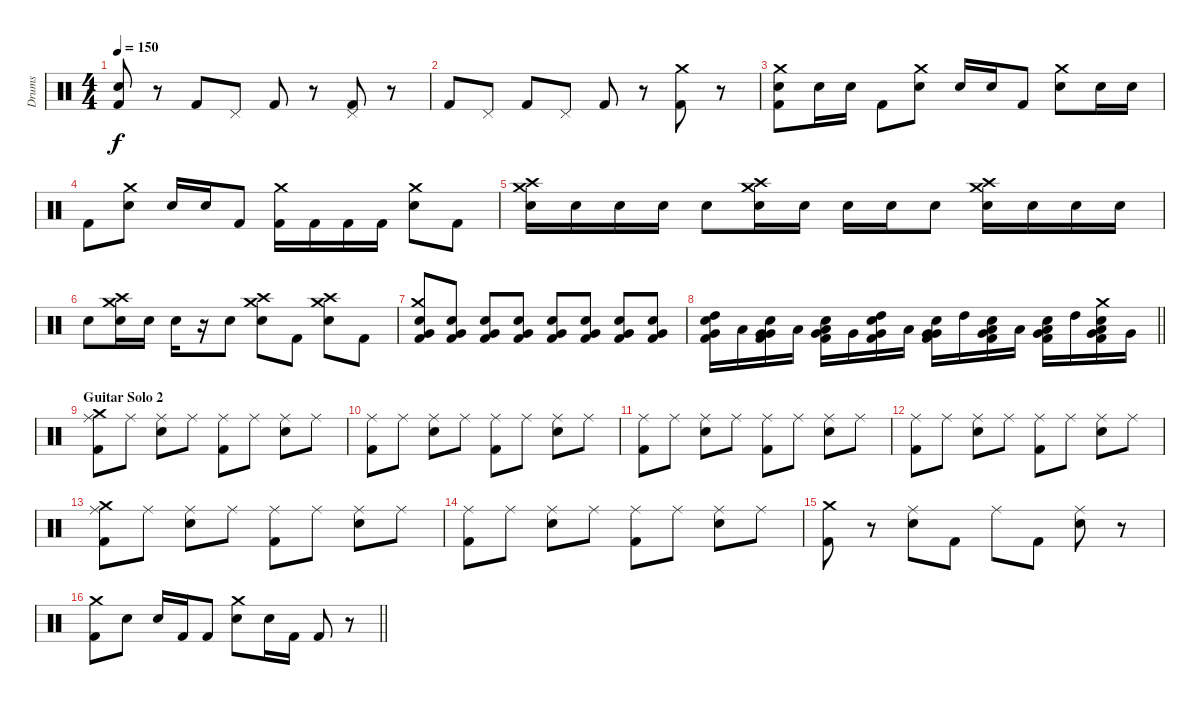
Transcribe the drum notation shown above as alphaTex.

\track ("Drums" "Drums") {instrument percussion}
\staff {score}
\articulation defaults
\ts (4 4)
\tempo 150
\clef neutral
\ks c
("Electric Snare (hit)" "Kick (hit) 2").8{dy f} r.8 "Kick (hit) 2".8 "Pedal Hi-Hat (hit)".8 "Kick (hit) 2".8 r.8 ("Pedal Hi-Hat (hit)" "Kick (hit) 2").8 r.8 |
"Kick (hit) 2".8 "Pedal Hi-Hat (hit)".8 "Kick (hit) 2".8 "Pedal Hi-Hat (hit)".8 "Kick (hit) 2".8 r.8 ("Crash medium (hit)" "Kick (hit) 2").8 r.8 |
("Crash medium (hit)" "Electric Snare (hit)" "Kick (hit) 2").8 "Electric Snare (hit)".16 "Electric Snare (hit)".16 "Kick (hit) 2".8 ("Crash medium (hit)" "Electric Snare (hit)").8 "Electric Snare (hit)".16 "Electric Snare (hit)".16 "Kick (hit) 2".8 ("Crash medium (hit)" "Electric Snare (hit)").8 "Electric Snare (hit)".16 "Electric Snare (hit)".16 |
"Kick (hit) 2".8 ("Crash medium (hit)" "Electric Snare (hit)").8 "Electric Snare (hit)".16 "Electric Snare (hit)".16 "Kick (hit) 2".8 ("Crash medium (hit)" "Kick (hit) 2").16 "Kick (hit) 2".16 "Kick (hit) 2".16 "Kick (hit) 2".16 ("Crash medium (hit)" "Electric Snare (hit)").8 "Kick (hit) 2".8 |
("Crash medium (hit)" "Crash high (hit)" "Electric Snare (hit)").16 "Electric Snare (hit)".16 "Electric Snare (hit)".16 "Electric Snare (hit)".16 "Electric Snare (hit)".8 ("Crash medium (hit)" "Crash high (hit)" "Electric Snare (hit)").16 "Electric Snare (hit)".16 "Electric Snare (hit)".16 "Electric Snare (hit)".16 "Electric Snare (hit)".8 ("Crash medium (hit)" "Crash high (hit)" "Electric Snare (hit)").16 "Electric Snare (hit)".16 "Electric Snare (hit)".16 "Electric Snare (hit)".16 |
"Electric Snare (hit)".8 ("Crash medium (hit)" "Crash high (hit)" "Electric Snare (hit)").16 "Electric Snare (hit)".16 "Electric Snare (hit)".16 r.16 "Electric Snare (hit)".8 ("Crash medium (hit)" "Crash high (hit)" "Electric Snare (hit)").8 "Kick (hit) 2".8 ("Crash medium (hit)" "Crash high (hit)" "Electric Snare (hit)").8 "Kick (hit) 2".8 |
("Crash medium (hit)" "Electric Snare (hit)" "Very Low Tom (hit)" "Kick (hit) 2").8 ("Electric Snare (hit)" "Very Low Tom (hit)" "Kick (hit) 2").8 ("Electric Snare (hit)" "Very Low Tom (hit)" "Kick (hit) 2").8 ("Electric Snare (hit)" "Very Low Tom (hit)" "Kick (hit) 2").8 ("Electric Snare (hit)" "Very Low Tom (hit)" "Kick (hit) 2").8 ("Electric Snare (hit)" "Very Low Tom (hit)" "Kick (hit) 2").8 ("Electric Snare (hit)" "Very Low Tom (hit)" "Kick (hit) 2").8 ("Electric Snare (hit)" "Very Low Tom (hit)" "Kick (hit) 2").8 |
\barLineRight lightlight
("High Tom (hit)" "Electric Snare (hit)" "Very Low Tom (hit)" "Kick (hit) 2").16 "Low Tom (hit)".16 ("Very Low Tom (hit)" "Electric Snare (hit)" "Very Low Tom (hit)" "Kick (hit) 2").16 "Low Floor Tom (hit)".16 ("Low Tom (hit)" "Electric Snare (hit)" "Very Low Tom (hit)" "Kick (hit) 2").16 "Very Low Tom (hit)".16 ("High Tom (hit)" "Electric Snare (hit)" "Very Low Tom (hit)" "Kick (hit) 2").16 "Low Floor Tom (hit)".16 ("Very Low Tom (hit)" "Electric Snare (hit)" "Very Low Tom (hit)" "Kick (hit) 2").16 "High Tom (hit)".16 ("Low Floor Tom (hit)" "Electric Snare (hit)" "Very Low Tom (hit)" "Kick (hit) 2").16 "Low Tom (hit)".16 ("Low Tom (hit)" "Electric Snare (hit)" "Very Low Tom (hit)" "Kick (hit) 2").16 "High Tom (hit)".16 ("Crash medium (hit)" "Low Tom (hit)" "Electric Snare (hit)" "Very Low Tom (hit)" "Kick (hit) 2").16 "Very Low Tom (hit)".16 |
\section ("" "Guitar Solo 2")
("Ride (middle)" "Crash medium (hit)" "Kick (hit) 2").8 "Ride (middle)".8 ("Ride (middle)" "Electric Snare (hit)").8 "Ride (middle)".8 ("Ride (middle)" "Kick (hit) 2").8 "Ride (middle)".8 ("Ride (middle)" "Electric Snare (hit)").8 "Ride (middle)".8 |
("Ride (middle)" "Kick (hit) 2").8 "Ride (middle)".8 ("Ride (middle)" "Electric Snare (hit)").8 "Ride (middle)".8 ("Ride (middle)" "Kick (hit) 2").8 "Ride (middle)".8 ("Ride (middle)" "Electric Snare (hit)").8 "Ride (middle)".8 |
("Ride (middle)" "Kick (hit) 2").8 "Ride (middle)".8 ("Ride (middle)" "Electric Snare (hit)").8 "Ride (middle)".8 ("Ride (middle)" "Kick (hit) 2").8 "Ride (middle)".8 ("Ride (middle)" "Electric Snare (hit)").8 "Ride (middle)".8 |
("Ride (middle)" "Kick (hit) 2").8 "Ride (middle)".8 ("Ride (middle)" "Electric Snare (hit)").8 "Ride (middle)".8 ("Ride (middle)" "Kick (hit) 2").8 "Ride (middle)".8 ("Ride (middle)" "Electric Snare (hit)").8 "Ride (middle)".8 |
("Ride (middle)" "Crash medium (hit)" "Kick (hit) 2").8 "Ride (middle)".8 ("Ride (middle)" "Electric Snare (hit)").8 "Ride (middle)".8 ("Ride (middle)" "Kick (hit) 2").8 "Ride (middle)".8 ("Ride (middle)" "Electric Snare (hit)").8 "Ride (middle)".8 |
("Ride (middle)" "Kick (hit) 2").8 "Ride (middle)".8 ("Ride (middle)" "Electric Snare (hit)").8 "Ride (middle)".8 ("Ride (middle)" "Kick (hit) 2").8 "Ride (middle)".8 ("Ride (middle)" "Electric Snare (hit)").8 "Ride (middle)".8 |
("Crash medium (hit)" "Kick (hit) 2").8 r.8 ("Ride (middle)" "Electric Snare (hit)").8 "Kick (hit) 2".8 "Ride (middle)".8 "Kick (hit) 2".8 ("Ride (middle)" "Electric Snare (hit)").8 r.8 |
\barLineRight lightlight
("Crash medium (hit)" "Kick (hit) 2").8 "Electric Snare (hit)".8 "Electric Snare (hit)".16 "Kick (hit) 2".16 "Kick (hit) 2".8 ("Crash medium (hit)" "Electric Snare (hit)").8 "Electric Snare (hit)".16 "Kick (hit) 2".16 "Kick (hit) 2".8 r.8
